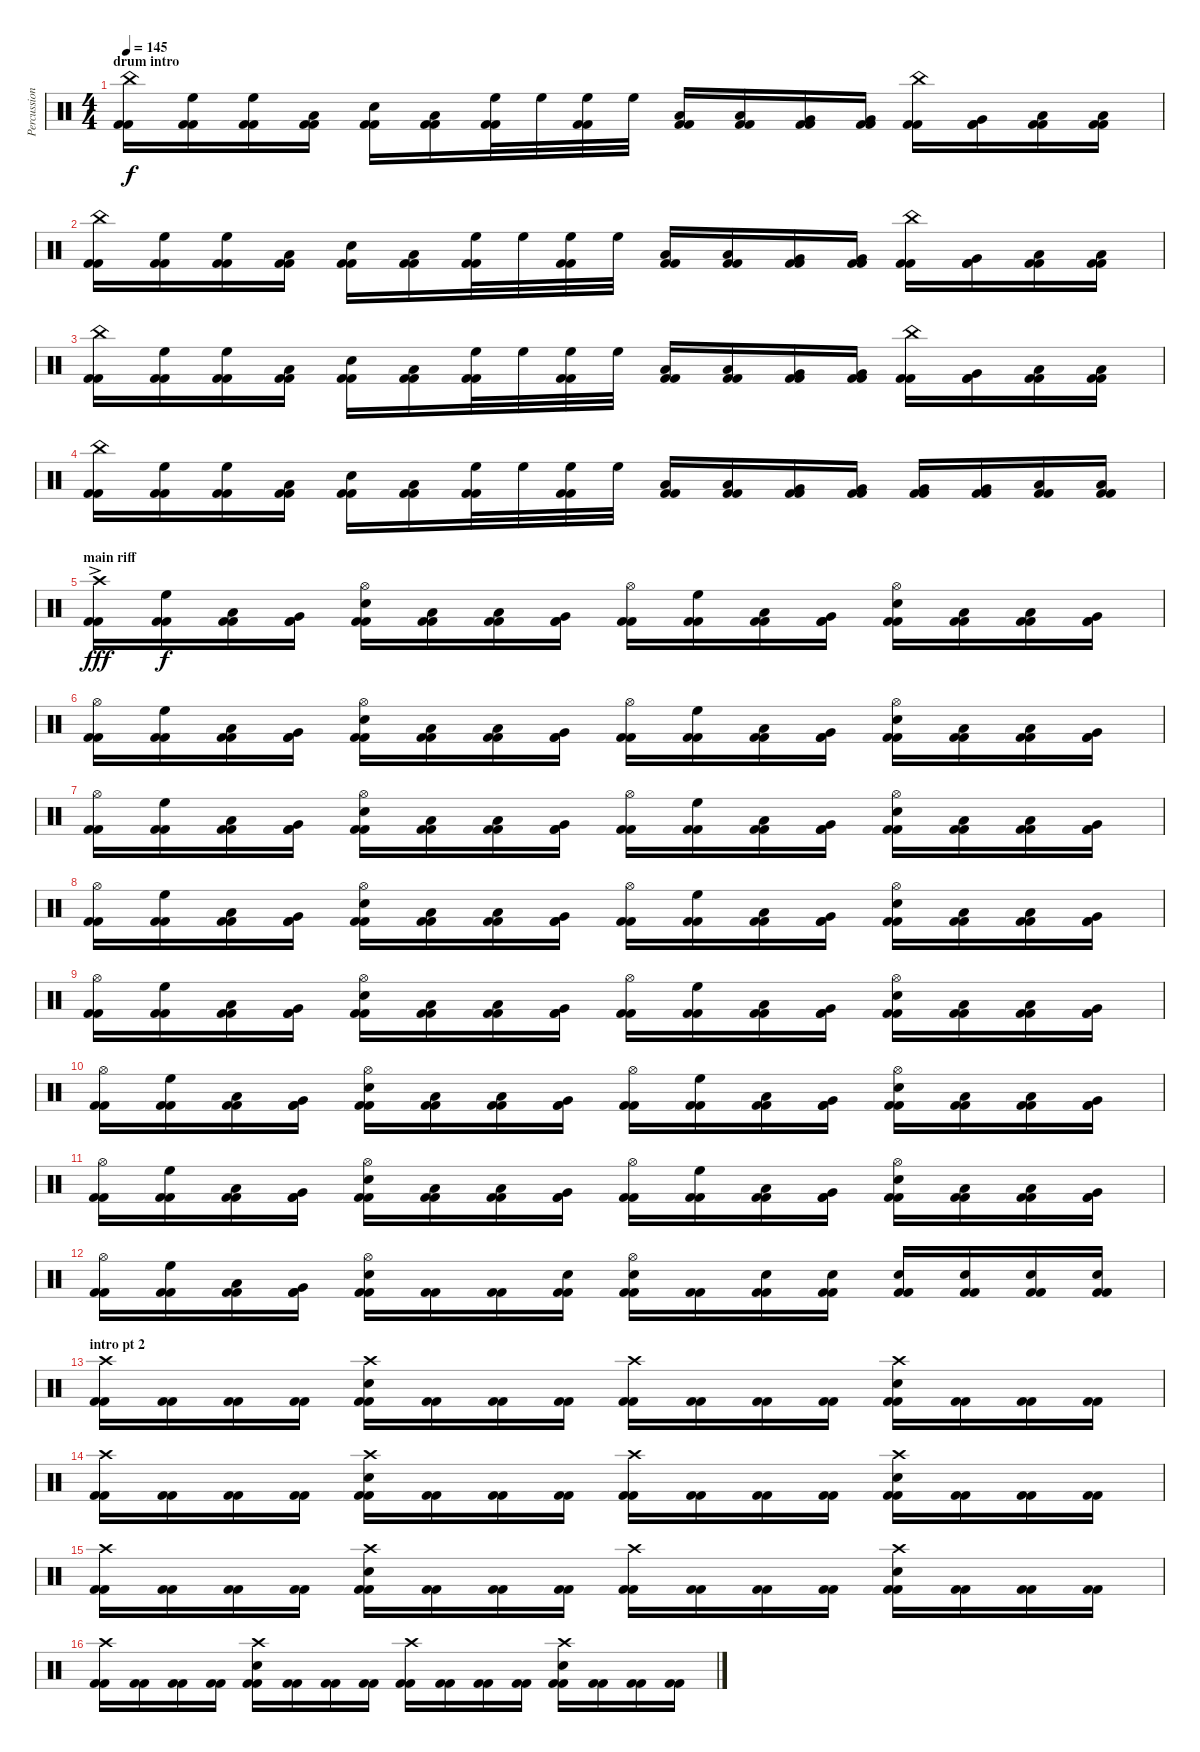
\track ("Percussion" "Percussion") {instrument percussion}
\staff {score}
\articulation defaults
\ts (4 4)
\section ("" "drum intro")
\tempo 145
\clef neutral
\ks c
("China (hit)" "Kick (hit) 2" "Kick (hit) 2").16{dy f} ("High Floor Tom (hit)" "Kick (hit) 2" "Kick (hit) 2").16 ("High Floor Tom (hit)" "Kick (hit) 2" "Kick (hit) 2").16 ("Low Tom (hit)" "Kick (hit) 2" "Kick (hit) 2").16 ("Electric Snare (hit)" "Kick (hit) 2" "Kick (hit) 2").16 ("Low Tom (hit)" "Kick (hit) 2" "Kick (hit) 2").16 ("High Floor Tom (hit)" "Kick (hit) 2" "Kick (hit) 2").32 "High Floor Tom (hit)".32 ("High Floor Tom (hit)" "Kick (hit) 2" "Kick (hit) 2").32 "High Floor Tom (hit)".32 ("Low Tom (hit)" "Kick (hit) 2" "Kick (hit) 2").16 ("Low Tom (hit)" "Kick (hit) 2" "Kick (hit) 2").16 ("Very Low Tom (hit)" "Kick (hit) 2" "Kick (hit) 2").16 ("Very Low Tom (hit)" "Kick (hit) 2" "Kick (hit) 2").16 ("China (hit)" "Kick (hit) 2" "Kick (hit) 2").16 ("Very Low Tom (hit)" "Kick (hit) 2" "Kick (hit) 2").16 ("Low Floor Tom (hit)" "Kick (hit) 2" "Kick (hit) 2").16 ("Low Floor Tom (hit)" "Kick (hit) 2" "Kick (hit) 2").16 |
("China (hit)" "Kick (hit) 2" "Kick (hit) 2").16 ("High Floor Tom (hit)" "Kick (hit) 2" "Kick (hit) 2").16 ("High Floor Tom (hit)" "Kick (hit) 2" "Kick (hit) 2").16 ("Low Tom (hit)" "Kick (hit) 2" "Kick (hit) 2").16 ("Electric Snare (hit)" "Kick (hit) 2" "Kick (hit) 2").16 ("Low Tom (hit)" "Kick (hit) 2" "Kick (hit) 2").16 ("High Floor Tom (hit)" "Kick (hit) 2" "Kick (hit) 2").32 "High Floor Tom (hit)".32 ("High Floor Tom (hit)" "Kick (hit) 2" "Kick (hit) 2").32 "High Floor Tom (hit)".32 ("Low Tom (hit)" "Kick (hit) 2" "Kick (hit) 2").16 ("Low Tom (hit)" "Kick (hit) 2" "Kick (hit) 2").16 ("Very Low Tom (hit)" "Kick (hit) 2" "Kick (hit) 2").16 ("Very Low Tom (hit)" "Kick (hit) 2" "Kick (hit) 2").16 ("China (hit)" "Kick (hit) 2" "Kick (hit) 2").16 ("Very Low Tom (hit)" "Kick (hit) 2" "Kick (hit) 2").16 ("Low Floor Tom (hit)" "Kick (hit) 2" "Kick (hit) 2").16 ("Low Floor Tom (hit)" "Kick (hit) 2" "Kick (hit) 2").16 |
("China (hit)" "Kick (hit) 2" "Kick (hit) 2").16 ("High Floor Tom (hit)" "Kick (hit) 2" "Kick (hit) 2").16 ("High Floor Tom (hit)" "Kick (hit) 2" "Kick (hit) 2").16 ("Low Tom (hit)" "Kick (hit) 2" "Kick (hit) 2").16 ("Electric Snare (hit)" "Kick (hit) 2" "Kick (hit) 2").16 ("Low Tom (hit)" "Kick (hit) 2" "Kick (hit) 2").16 ("High Floor Tom (hit)" "Kick (hit) 2" "Kick (hit) 2").32 "High Floor Tom (hit)".32 ("High Floor Tom (hit)" "Kick (hit) 2" "Kick (hit) 2").32 "High Floor Tom (hit)".32 ("Low Tom (hit)" "Kick (hit) 2" "Kick (hit) 2").16 ("Low Tom (hit)" "Kick (hit) 2" "Kick (hit) 2").16 ("Very Low Tom (hit)" "Kick (hit) 2" "Kick (hit) 2").16 ("Very Low Tom (hit)" "Kick (hit) 2" "Kick (hit) 2").16 ("China (hit)" "Kick (hit) 2" "Kick (hit) 2").16 ("Very Low Tom (hit)" "Kick (hit) 2" "Kick (hit) 2").16 ("Low Floor Tom (hit)" "Kick (hit) 2" "Kick (hit) 2").16 ("Low Floor Tom (hit)" "Kick (hit) 2" "Kick (hit) 2").16 |
("China (hit)" "Kick (hit) 2" "Kick (hit) 2").16 ("High Floor Tom (hit)" "Kick (hit) 2" "Kick (hit) 2").16 ("High Floor Tom (hit)" "Kick (hit) 2" "Kick (hit) 2").16 ("Low Tom (hit)" "Kick (hit) 2" "Kick (hit) 2").16 ("Electric Snare (hit)" "Kick (hit) 2" "Kick (hit) 2").16 ("Low Tom (hit)" "Kick (hit) 2" "Kick (hit) 2").16 ("High Floor Tom (hit)" "Kick (hit) 2" "Kick (hit) 2").32 "High Floor Tom (hit)".32 ("High Floor Tom (hit)" "Kick (hit) 2" "Kick (hit) 2").32 "High Floor Tom (hit)".32 ("Low Tom (hit)" "Kick (hit) 2" "Kick (hit) 2").16 ("Low Tom (hit)" "Kick (hit) 2" "Kick (hit) 2").16 ("Very Low Tom (hit)" "Kick (hit) 2" "Kick (hit) 2").16 ("Very Low Tom (hit)" "Kick (hit) 2" "Kick (hit) 2").16 ("Very Low Tom (hit)" "Kick (hit) 2" "Kick (hit) 2").16 ("Very Low Tom (hit)" "Kick (hit) 2" "Kick (hit) 2").16 ("Low Floor Tom (hit)" "Kick (hit) 2" "Kick (hit) 2").16 ("Low Floor Tom (hit)" "Kick (hit) 2" "Kick (hit) 2").16 |
\section ("" "main riff")
("Crash high (hit)"{ac} "Kick (hit) 2" "Kick (hit) 2").16{dy fff} ("High Floor Tom (hit)" "Kick (hit) 2" "Kick (hit) 2").16{dy f} ("Low Floor Tom (hit)" "Kick (hit) 2" "Kick (hit) 2").16 ("Very Low Tom (hit)" "Kick (hit) 2" "Kick (hit) 2").16 ("Hi-Hat (open)" "Electric Snare (hit)" "Kick (hit) 2" "Kick (hit) 2").16 ("Low Tom (hit)" "Kick (hit) 2" "Kick (hit) 2").16 ("Low Floor Tom (hit)" "Kick (hit) 2" "Kick (hit) 2").16 ("Very Low Tom (hit)" "Kick (hit) 2" "Kick (hit) 2").16 ("Hi-Hat (open)" "Kick (hit) 2" "Kick (hit) 2").16 ("High Floor Tom (hit)" "Kick (hit) 2" "Kick (hit) 2").16 ("Low Floor Tom (hit)" "Kick (hit) 2" "Kick (hit) 2").16 ("Very Low Tom (hit)" "Kick (hit) 2" "Kick (hit) 2").16 ("Hi-Hat (open)" "Electric Snare (hit)" "Kick (hit) 2" "Kick (hit) 2").16 ("Low Tom (hit)" "Kick (hit) 2" "Kick (hit) 2").16 ("Low Floor Tom (hit)" "Kick (hit) 2" "Kick (hit) 2").16 ("Very Low Tom (hit)" "Kick (hit) 2" "Kick (hit) 2").16 |
("Hi-Hat (open)" "Kick (hit) 2" "Kick (hit) 2").16 ("High Floor Tom (hit)" "Kick (hit) 2" "Kick (hit) 2").16 ("Low Floor Tom (hit)" "Kick (hit) 2" "Kick (hit) 2").16 ("Very Low Tom (hit)" "Kick (hit) 2" "Kick (hit) 2").16 ("Hi-Hat (open)" "Electric Snare (hit)" "Kick (hit) 2" "Kick (hit) 2").16 ("Low Tom (hit)" "Kick (hit) 2" "Kick (hit) 2").16 ("Low Floor Tom (hit)" "Kick (hit) 2" "Kick (hit) 2").16 ("Very Low Tom (hit)" "Kick (hit) 2" "Kick (hit) 2").16 ("Hi-Hat (open)" "Kick (hit) 2" "Kick (hit) 2").16 ("High Floor Tom (hit)" "Kick (hit) 2" "Kick (hit) 2").16 ("Low Floor Tom (hit)" "Kick (hit) 2" "Kick (hit) 2").16 ("Very Low Tom (hit)" "Kick (hit) 2" "Kick (hit) 2").16 ("Hi-Hat (open)" "Electric Snare (hit)" "Kick (hit) 2" "Kick (hit) 2").16 ("Low Tom (hit)" "Kick (hit) 2" "Kick (hit) 2").16 ("Low Floor Tom (hit)" "Kick (hit) 2" "Kick (hit) 2").16 ("Very Low Tom (hit)" "Kick (hit) 2" "Kick (hit) 2").16 |
("Hi-Hat (open)" "Kick (hit) 2" "Kick (hit) 2").16 ("High Floor Tom (hit)" "Kick (hit) 2" "Kick (hit) 2").16 ("Low Floor Tom (hit)" "Kick (hit) 2" "Kick (hit) 2").16 ("Very Low Tom (hit)" "Kick (hit) 2" "Kick (hit) 2").16 ("Hi-Hat (open)" "Electric Snare (hit)" "Kick (hit) 2" "Kick (hit) 2").16 ("Low Tom (hit)" "Kick (hit) 2" "Kick (hit) 2").16 ("Low Floor Tom (hit)" "Kick (hit) 2" "Kick (hit) 2").16 ("Very Low Tom (hit)" "Kick (hit) 2" "Kick (hit) 2").16 ("Hi-Hat (open)" "Kick (hit) 2" "Kick (hit) 2").16 ("High Floor Tom (hit)" "Kick (hit) 2" "Kick (hit) 2").16 ("Low Floor Tom (hit)" "Kick (hit) 2" "Kick (hit) 2").16 ("Very Low Tom (hit)" "Kick (hit) 2" "Kick (hit) 2").16 ("Hi-Hat (open)" "Electric Snare (hit)" "Kick (hit) 2" "Kick (hit) 2").16 ("Low Tom (hit)" "Kick (hit) 2" "Kick (hit) 2").16 ("Low Floor Tom (hit)" "Kick (hit) 2" "Kick (hit) 2").16 ("Very Low Tom (hit)" "Kick (hit) 2" "Kick (hit) 2").16 |
("Hi-Hat (open)" "Kick (hit) 2" "Kick (hit) 2").16 ("High Floor Tom (hit)" "Kick (hit) 2" "Kick (hit) 2").16 ("Low Floor Tom (hit)" "Kick (hit) 2" "Kick (hit) 2").16 ("Very Low Tom (hit)" "Kick (hit) 2" "Kick (hit) 2").16 ("Hi-Hat (open)" "Electric Snare (hit)" "Kick (hit) 2" "Kick (hit) 2").16 ("Low Tom (hit)" "Kick (hit) 2" "Kick (hit) 2").16 ("Low Floor Tom (hit)" "Kick (hit) 2" "Kick (hit) 2").16 ("Very Low Tom (hit)" "Kick (hit) 2" "Kick (hit) 2").16 ("Hi-Hat (open)" "Kick (hit) 2" "Kick (hit) 2").16 ("High Floor Tom (hit)" "Kick (hit) 2" "Kick (hit) 2").16 ("Low Floor Tom (hit)" "Kick (hit) 2" "Kick (hit) 2").16 ("Very Low Tom (hit)" "Kick (hit) 2" "Kick (hit) 2").16 ("Hi-Hat (open)" "Electric Snare (hit)" "Kick (hit) 2" "Kick (hit) 2").16 ("Low Tom (hit)" "Kick (hit) 2" "Kick (hit) 2").16 ("Low Floor Tom (hit)" "Kick (hit) 2" "Kick (hit) 2").16 ("Very Low Tom (hit)" "Kick (hit) 2" "Kick (hit) 2").16 |
("Hi-Hat (open)" "Kick (hit) 2" "Kick (hit) 2").16 ("High Floor Tom (hit)" "Kick (hit) 2" "Kick (hit) 2").16 ("Low Floor Tom (hit)" "Kick (hit) 2" "Kick (hit) 2").16 ("Very Low Tom (hit)" "Kick (hit) 2" "Kick (hit) 2").16 ("Hi-Hat (open)" "Electric Snare (hit)" "Kick (hit) 2" "Kick (hit) 2").16 ("Low Tom (hit)" "Kick (hit) 2" "Kick (hit) 2").16 ("Low Floor Tom (hit)" "Kick (hit) 2" "Kick (hit) 2").16 ("Very Low Tom (hit)" "Kick (hit) 2" "Kick (hit) 2").16 ("Hi-Hat (open)" "Kick (hit) 2" "Kick (hit) 2").16 ("High Floor Tom (hit)" "Kick (hit) 2" "Kick (hit) 2").16 ("Low Floor Tom (hit)" "Kick (hit) 2" "Kick (hit) 2").16 ("Very Low Tom (hit)" "Kick (hit) 2" "Kick (hit) 2").16 ("Hi-Hat (open)" "Electric Snare (hit)" "Kick (hit) 2" "Kick (hit) 2").16 ("Low Tom (hit)" "Kick (hit) 2" "Kick (hit) 2").16 ("Low Floor Tom (hit)" "Kick (hit) 2" "Kick (hit) 2").16 ("Very Low Tom (hit)" "Kick (hit) 2" "Kick (hit) 2").16 |
("Hi-Hat (open)" "Kick (hit) 2" "Kick (hit) 2").16 ("High Floor Tom (hit)" "Kick (hit) 2" "Kick (hit) 2").16 ("Low Floor Tom (hit)" "Kick (hit) 2" "Kick (hit) 2").16 ("Very Low Tom (hit)" "Kick (hit) 2" "Kick (hit) 2").16 ("Hi-Hat (open)" "Electric Snare (hit)" "Kick (hit) 2" "Kick (hit) 2").16 ("Low Tom (hit)" "Kick (hit) 2" "Kick (hit) 2").16 ("Low Floor Tom (hit)" "Kick (hit) 2" "Kick (hit) 2").16 ("Very Low Tom (hit)" "Kick (hit) 2" "Kick (hit) 2").16 ("Hi-Hat (open)" "Kick (hit) 2" "Kick (hit) 2").16 ("High Floor Tom (hit)" "Kick (hit) 2" "Kick (hit) 2").16 ("Low Floor Tom (hit)" "Kick (hit) 2" "Kick (hit) 2").16 ("Very Low Tom (hit)" "Kick (hit) 2" "Kick (hit) 2").16 ("Hi-Hat (open)" "Electric Snare (hit)" "Kick (hit) 2" "Kick (hit) 2").16 ("Low Tom (hit)" "Kick (hit) 2" "Kick (hit) 2").16 ("Low Floor Tom (hit)" "Kick (hit) 2" "Kick (hit) 2").16 ("Very Low Tom (hit)" "Kick (hit) 2" "Kick (hit) 2").16 |
("Hi-Hat (open)" "Kick (hit) 2" "Kick (hit) 2").16 ("High Floor Tom (hit)" "Kick (hit) 2" "Kick (hit) 2").16 ("Low Floor Tom (hit)" "Kick (hit) 2" "Kick (hit) 2").16 ("Very Low Tom (hit)" "Kick (hit) 2" "Kick (hit) 2").16 ("Hi-Hat (open)" "Electric Snare (hit)" "Kick (hit) 2" "Kick (hit) 2").16 ("Low Tom (hit)" "Kick (hit) 2" "Kick (hit) 2").16 ("Low Floor Tom (hit)" "Kick (hit) 2" "Kick (hit) 2").16 ("Very Low Tom (hit)" "Kick (hit) 2" "Kick (hit) 2").16 ("Hi-Hat (open)" "Kick (hit) 2" "Kick (hit) 2").16 ("High Floor Tom (hit)" "Kick (hit) 2" "Kick (hit) 2").16 ("Low Floor Tom (hit)" "Kick (hit) 2" "Kick (hit) 2").16 ("Very Low Tom (hit)" "Kick (hit) 2" "Kick (hit) 2").16 ("Hi-Hat (open)" "Electric Snare (hit)" "Kick (hit) 2" "Kick (hit) 2").16 ("Low Tom (hit)" "Kick (hit) 2" "Kick (hit) 2").16 ("Low Floor Tom (hit)" "Kick (hit) 2" "Kick (hit) 2").16 ("Very Low Tom (hit)" "Kick (hit) 2" "Kick (hit) 2").16 |
("Hi-Hat (open)" "Kick (hit) 2" "Kick (hit) 2").16 ("High Floor Tom (hit)" "Kick (hit) 2" "Kick (hit) 2").16 ("Low Floor Tom (hit)" "Kick (hit) 2" "Kick (hit) 2").16 ("Very Low Tom (hit)" "Kick (hit) 2" "Kick (hit) 2").16 ("Hi-Hat (open)" "Electric Snare (hit)" "Kick (hit) 2" "Kick (hit) 2").16 ("Kick (hit) 2" "Kick (hit) 2").16 ("Kick (hit) 2" "Kick (hit) 2").16 ("Electric Snare (hit)" "Kick (hit) 2" "Kick (hit) 2").16 ("Hi-Hat (open)" "Electric Snare (hit)" "Kick (hit) 2" "Kick (hit) 2").16 ("Kick (hit) 2" "Kick (hit) 2").16 ("Electric Snare (hit)" "Kick (hit) 2" "Kick (hit) 2").16 ("Electric Snare (hit)" "Kick (hit) 2" "Kick (hit) 2").16 ("Electric Snare (hit)" "Kick (hit) 2" "Kick (hit) 2").16 ("Electric Snare (hit)" "Kick (hit) 2" "Kick (hit) 2").16 ("Electric Snare (hit)" "Kick (hit) 2" "Kick (hit) 2").16 ("Electric Snare (hit)" "Kick (hit) 2" "Kick (hit) 2").16 |
\section ("" "intro pt 2")
("Crash high (hit)" "Kick (hit) 2" "Kick (hit) 2").16 ("Kick (hit) 2" "Kick (hit) 2").16 ("Kick (hit) 2" "Kick (hit) 2").16 ("Kick (hit) 2" "Kick (hit) 2").16 ("Crash high (hit)" "Electric Snare (hit)" "Kick (hit) 2" "Kick (hit) 2").16 ("Kick (hit) 2" "Kick (hit) 2").16 ("Kick (hit) 2" "Kick (hit) 2").16 ("Kick (hit) 2" "Kick (hit) 2").16 ("Crash high (hit)" "Kick (hit) 2" "Kick (hit) 2").16 ("Kick (hit) 2" "Kick (hit) 2").16 ("Kick (hit) 2" "Kick (hit) 2").16 ("Kick (hit) 2" "Kick (hit) 2").16 ("Crash high (hit)" "Electric Snare (hit)" "Kick (hit) 2" "Kick (hit) 2").16 ("Kick (hit) 2" "Kick (hit) 2").16 ("Kick (hit) 2" "Kick (hit) 2").16 ("Kick (hit) 2" "Kick (hit) 2").16 |
("Crash high (hit)" "Kick (hit) 2" "Kick (hit) 2").16 ("Kick (hit) 2" "Kick (hit) 2").16 ("Kick (hit) 2" "Kick (hit) 2").16 ("Kick (hit) 2" "Kick (hit) 2").16 ("Crash high (hit)" "Electric Snare (hit)" "Kick (hit) 2" "Kick (hit) 2").16 ("Kick (hit) 2" "Kick (hit) 2").16 ("Kick (hit) 2" "Kick (hit) 2").16 ("Kick (hit) 2" "Kick (hit) 2").16 ("Crash high (hit)" "Kick (hit) 2" "Kick (hit) 2").16 ("Kick (hit) 2" "Kick (hit) 2").16 ("Kick (hit) 2" "Kick (hit) 2").16 ("Kick (hit) 2" "Kick (hit) 2").16 ("Crash high (hit)" "Electric Snare (hit)" "Kick (hit) 2" "Kick (hit) 2").16 ("Kick (hit) 2" "Kick (hit) 2").16 ("Kick (hit) 2" "Kick (hit) 2").16 ("Kick (hit) 2" "Kick (hit) 2").16 |
("Crash high (hit)" "Kick (hit) 2" "Kick (hit) 2").16 ("Kick (hit) 2" "Kick (hit) 2").16 ("Kick (hit) 2" "Kick (hit) 2").16 ("Kick (hit) 2" "Kick (hit) 2").16 ("Crash high (hit)" "Electric Snare (hit)" "Kick (hit) 2" "Kick (hit) 2").16 ("Kick (hit) 2" "Kick (hit) 2").16 ("Kick (hit) 2" "Kick (hit) 2").16 ("Kick (hit) 2" "Kick (hit) 2").16 ("Crash high (hit)" "Kick (hit) 2" "Kick (hit) 2").16 ("Kick (hit) 2" "Kick (hit) 2").16 ("Kick (hit) 2" "Kick (hit) 2").16 ("Kick (hit) 2" "Kick (hit) 2").16 ("Crash high (hit)" "Electric Snare (hit)" "Kick (hit) 2" "Kick (hit) 2").16 ("Kick (hit) 2" "Kick (hit) 2").16 ("Kick (hit) 2" "Kick (hit) 2").16 ("Kick (hit) 2" "Kick (hit) 2").16 |
("Crash high (hit)" "Kick (hit) 2" "Kick (hit) 2").16 ("Kick (hit) 2" "Kick (hit) 2").16 ("Kick (hit) 2" "Kick (hit) 2").16 ("Kick (hit) 2" "Kick (hit) 2").16 ("Crash high (hit)" "Electric Snare (hit)" "Kick (hit) 2" "Kick (hit) 2").16 ("Kick (hit) 2" "Kick (hit) 2").16 ("Kick (hit) 2" "Kick (hit) 2").16 ("Kick (hit) 2" "Kick (hit) 2").16 ("Crash high (hit)" "Kick (hit) 2" "Kick (hit) 2").16 ("Kick (hit) 2" "Kick (hit) 2").16 ("Kick (hit) 2" "Kick (hit) 2").16 ("Kick (hit) 2" "Kick (hit) 2").16 ("Crash high (hit)" "Electric Snare (hit)" "Kick (hit) 2" "Kick (hit) 2").16 ("Kick (hit) 2" "Kick (hit) 2").16 ("Kick (hit) 2" "Kick (hit) 2").16 ("Kick (hit) 2" "Kick (hit) 2").16
